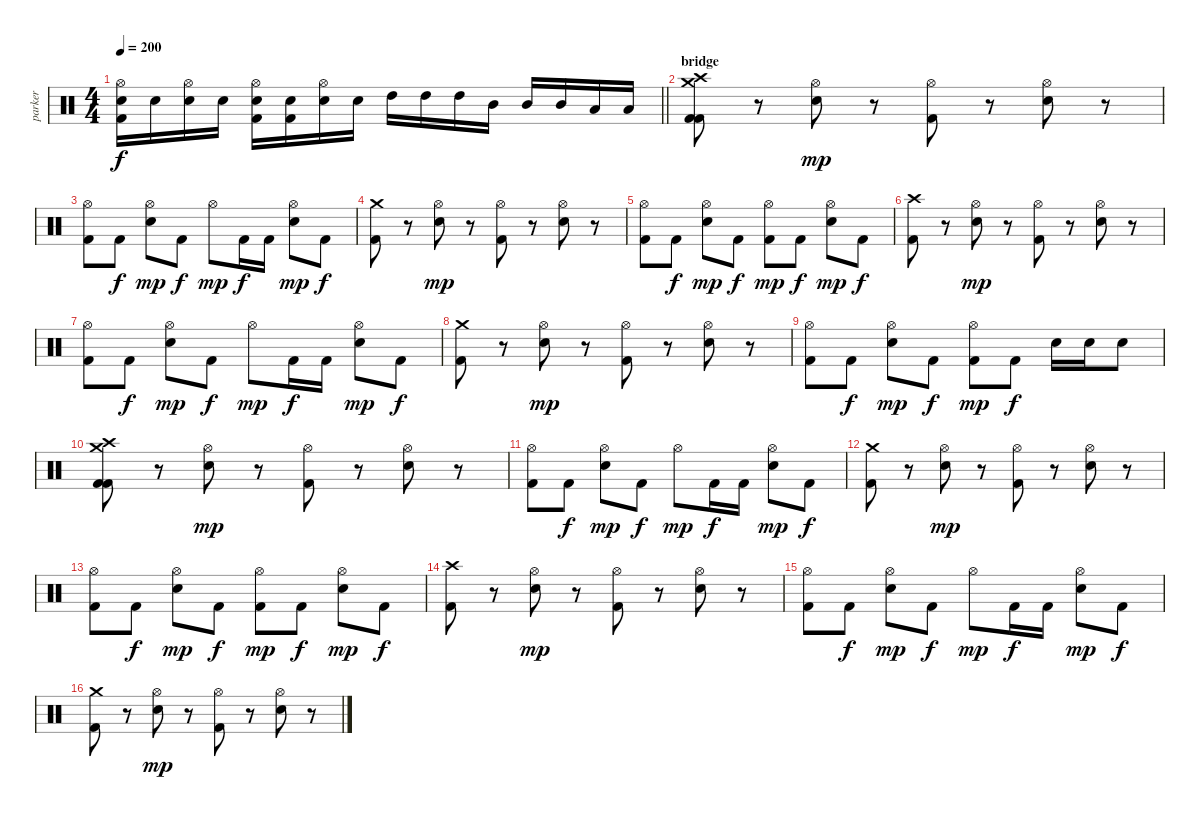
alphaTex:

\track ("parker" "parker") {instrument percussion}
\staff {score}
\articulation defaults
\ts (4 4)
\tempo 200
\clef neutral
\barLineRight lightlight
\ks c
("Hi-Hat (open)" "Kick (hit) 2" "Snare (hit)").16{dy f} "Snare (hit)".16 ("Hi-Hat (open)" "Electric Snare (hit)").16 "Snare (hit)".16 ("Hi-Hat (open)" "Kick (hit) 2" "Snare (hit)").16 ("Kick (hit) 2" "Snare (hit)").16 ("Hi-Hat (open)" "Electric Snare (hit)").16 "Snare (hit)".16 "High Tom (hit)".16 "High Tom (hit)".16 "High Tom (hit)".16 "Mid Tom (hit)".16 "Mid Tom (hit)".16 "Mid Tom (hit)".16 "Low Tom (hit)".16 "Low Tom (hit)".16 |
\section ("" "bridge")
("Crash medium (hit)" "Crash high (hit)" "Kick (hit) 2" "Kick (hit) 2").8 r.8 ("Hi-Hat (open)" "Electric Snare (hit)").8{dy mp} r.8 ("Hi-Hat (open)" "Kick (hit) 2").8 r.8 ("Hi-Hat (open)" "Electric Snare (hit)").8 r.8 |
("Hi-Hat (open)" "Kick (hit) 2").8 "Kick (hit) 2".8{dy f} ("Hi-Hat (open)" "Electric Snare (hit)").8{dy mp} "Kick (hit) 2".8{dy f} "Hi-Hat (open)".8{dy mp} "Kick (hit) 2".16{dy f} "Kick (hit) 2".16 ("Hi-Hat (open)" "Electric Snare (hit)").8{dy mp} "Kick (hit) 2".8{dy f} |
("Crash medium (hit)" "Kick (hit) 2").8 r.8 ("Hi-Hat (open)" "Electric Snare (hit)").8{dy mp} r.8 ("Hi-Hat (open)" "Kick (hit) 2").8 r.8 ("Hi-Hat (open)" "Electric Snare (hit)").8 r.8 |
("Hi-Hat (open)" "Kick (hit) 2").8 "Kick (hit) 2".8{dy f} ("Hi-Hat (open)" "Electric Snare (hit)").8{dy mp} "Kick (hit) 2".8{dy f} ("Hi-Hat (open)" "Kick (hit) 2").8{dy mp} "Kick (hit) 2".8{dy f} ("Hi-Hat (open)" "Electric Snare (hit)").8{dy mp} "Kick (hit) 2".8{dy f} |
("Crash high (hit)" "Kick (hit) 2").8 r.8 ("Hi-Hat (open)" "Electric Snare (hit)").8{dy mp} r.8 ("Hi-Hat (open)" "Kick (hit) 2").8 r.8 ("Hi-Hat (open)" "Electric Snare (hit)").8 r.8 |
("Hi-Hat (open)" "Kick (hit) 2").8 "Kick (hit) 2".8{dy f} ("Hi-Hat (open)" "Electric Snare (hit)").8{dy mp} "Kick (hit) 2".8{dy f} "Hi-Hat (open)".8{dy mp} "Kick (hit) 2".16{dy f} "Kick (hit) 2".16 ("Hi-Hat (open)" "Electric Snare (hit)").8{dy mp} "Kick (hit) 2".8{dy f} |
("Crash medium (hit)" "Kick (hit) 2").8 r.8 ("Hi-Hat (open)" "Electric Snare (hit)").8{dy mp} r.8 ("Hi-Hat (open)" "Kick (hit) 2").8 r.8 ("Hi-Hat (open)" "Electric Snare (hit)").8 r.8 |
("Hi-Hat (open)" "Kick (hit) 2").8 "Kick (hit) 2".8{dy f} ("Hi-Hat (open)" "Electric Snare (hit)").8{dy mp} "Kick (hit) 2".8{dy f} ("Hi-Hat (open)" "Kick (hit) 2").8{dy mp} "Kick (hit) 2".8{dy f} "Electric Snare (hit)".16 "Electric Snare (hit)".16 "Electric Snare (hit)".8 |
("Crash medium (hit)" "Crash high (hit)" "Kick (hit) 2" "Kick (hit) 2").8 r.8 ("Hi-Hat (open)" "Electric Snare (hit)").8{dy mp} r.8 ("Hi-Hat (open)" "Kick (hit) 2").8 r.8 ("Hi-Hat (open)" "Electric Snare (hit)").8 r.8 |
("Hi-Hat (open)" "Kick (hit) 2").8 "Kick (hit) 2".8{dy f} ("Hi-Hat (open)" "Electric Snare (hit)").8{dy mp} "Kick (hit) 2".8{dy f} "Hi-Hat (open)".8{dy mp} "Kick (hit) 2".16{dy f} "Kick (hit) 2".16 ("Hi-Hat (open)" "Electric Snare (hit)").8{dy mp} "Kick (hit) 2".8{dy f} |
("Crash medium (hit)" "Kick (hit) 2").8 r.8 ("Hi-Hat (open)" "Electric Snare (hit)").8{dy mp} r.8 ("Hi-Hat (open)" "Kick (hit) 2").8 r.8 ("Hi-Hat (open)" "Electric Snare (hit)").8 r.8 |
("Hi-Hat (open)" "Kick (hit) 2").8 "Kick (hit) 2".8{dy f} ("Hi-Hat (open)" "Electric Snare (hit)").8{dy mp} "Kick (hit) 2".8{dy f} ("Hi-Hat (open)" "Kick (hit) 2").8{dy mp} "Kick (hit) 2".8{dy f} ("Hi-Hat (open)" "Electric Snare (hit)").8{dy mp} "Kick (hit) 2".8{dy f} |
("Crash high (hit)" "Kick (hit) 2").8 r.8 ("Hi-Hat (open)" "Electric Snare (hit)").8{dy mp} r.8 ("Hi-Hat (open)" "Kick (hit) 2").8 r.8 ("Hi-Hat (open)" "Electric Snare (hit)").8 r.8 |
("Hi-Hat (open)" "Kick (hit) 2").8 "Kick (hit) 2".8{dy f} ("Hi-Hat (open)" "Electric Snare (hit)").8{dy mp} "Kick (hit) 2".8{dy f} "Hi-Hat (open)".8{dy mp} "Kick (hit) 2".16{dy f} "Kick (hit) 2".16 ("Hi-Hat (open)" "Electric Snare (hit)").8{dy mp} "Kick (hit) 2".8{dy f} |
("Crash medium (hit)" "Kick (hit) 2").8 r.8 ("Hi-Hat (open)" "Electric Snare (hit)").8{dy mp} r.8 ("Hi-Hat (open)" "Kick (hit) 2").8 r.8 ("Hi-Hat (open)" "Electric Snare (hit)").8 r.8
